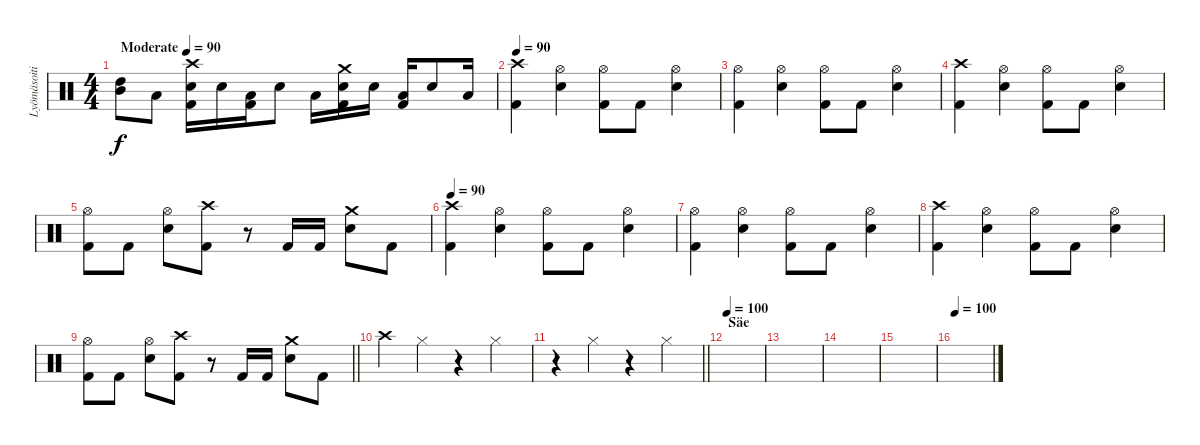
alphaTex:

\track ("Lyömäsoitin" "Lyömäsoiti") {instrument percussion}
\staff {score}
\articulation defaults
\ts (4 4)
\tempo (90 "Moderate")
\clef neutral
\ks c
("High Tom (hit)" "Mid Tom (hit)").8{dy f} "Low Tom (hit)".8 ("Crash high (hit)" "Snare (hit) 2" "Kick (hit) 2").16 "Snare (hit) 2".16 ("Low Tom (hit)" "Kick (hit) 2").16 "Snare (hit) 2".8 "Low Tom (hit)".16 ("Crash medium (hit)" "Snare (hit) 2" "Kick (hit) 2").16 "Snare (hit) 2".16 ("Low Tom (hit)" "Kick (hit) 2").16 "Snare (hit) 2".8 "Low Tom (hit)".16 |
\tempo 90
("Crash high (hit)" "Kick (hit) 2").4 ("Hi-Hat (open)" "Snare (hit) 2").4 ("Hi-Hat (open)" "Kick (hit) 2").8 "Kick (hit) 2".8 ("Hi-Hat (open)" "Snare (hit) 2").4 |
("Hi-Hat (open)" "Kick (hit) 2").4 ("Hi-Hat (open)" "Snare (hit) 2").4 ("Hi-Hat (open)" "Kick (hit) 2").8 "Kick (hit) 2".8 ("Hi-Hat (open)" "Snare (hit) 2").4 |
("Crash high (hit)" "Kick (hit) 2").4 ("Hi-Hat (open)" "Snare (hit) 2").4 ("Hi-Hat (open)" "Kick (hit) 2").8 "Kick (hit) 2".8 ("Hi-Hat (open)" "Snare (hit) 2").4 |
("Hi-Hat (open)" "Kick (hit) 2").8 "Kick (hit) 2".8 ("Hi-Hat (open)" "Snare (hit) 2").8 ("Crash high (hit)" "Kick (hit) 2").8 r.8 "Kick (hit) 2".16 "Kick (hit) 2".16 ("Crash medium (hit)" "Snare (hit) 2").8 "Kick (hit) 2".8 |
\tempo 90
("Crash high (hit)" "Kick (hit) 2").4 ("Hi-Hat (open)" "Snare (hit) 2").4 ("Hi-Hat (open)" "Kick (hit) 2").8 "Kick (hit) 2".8 ("Hi-Hat (open)" "Snare (hit) 2").4 |
("Hi-Hat (open)" "Kick (hit) 2").4 ("Hi-Hat (open)" "Snare (hit) 2").4 ("Hi-Hat (open)" "Kick (hit) 2").8 "Kick (hit) 2".8 ("Hi-Hat (open)" "Snare (hit) 2").4 |
("Crash high (hit)" "Kick (hit) 2").4 ("Hi-Hat (open)" "Snare (hit) 2").4 ("Hi-Hat (open)" "Kick (hit) 2").8 "Kick (hit) 2".8 ("Hi-Hat (open)" "Snare (hit) 2").4 |
\barLineRight lightlight
("Hi-Hat (open)" "Kick (hit) 2").8 "Kick (hit) 2".8 ("Hi-Hat (open)" "Snare (hit) 2").8 ("Crash high (hit)" "Kick (hit) 2").8 r.8 "Kick (hit) 2".16 "Kick (hit) 2".16 ("Crash medium (hit)" "Snare (hit) 2").8 "Kick (hit) 2".8 |
"Crash high (hit)".4 "Hi-Hat (closed)".4 r.4 "Hi-Hat (closed)".4 |
\barLineRight lightlight
r.4 "Hi-Hat (closed)".4 r.4 "Hi-Hat (closed)".4 |
\section ("" "Säe")
\tempo 100
|
|
|
|
\tempo 100
